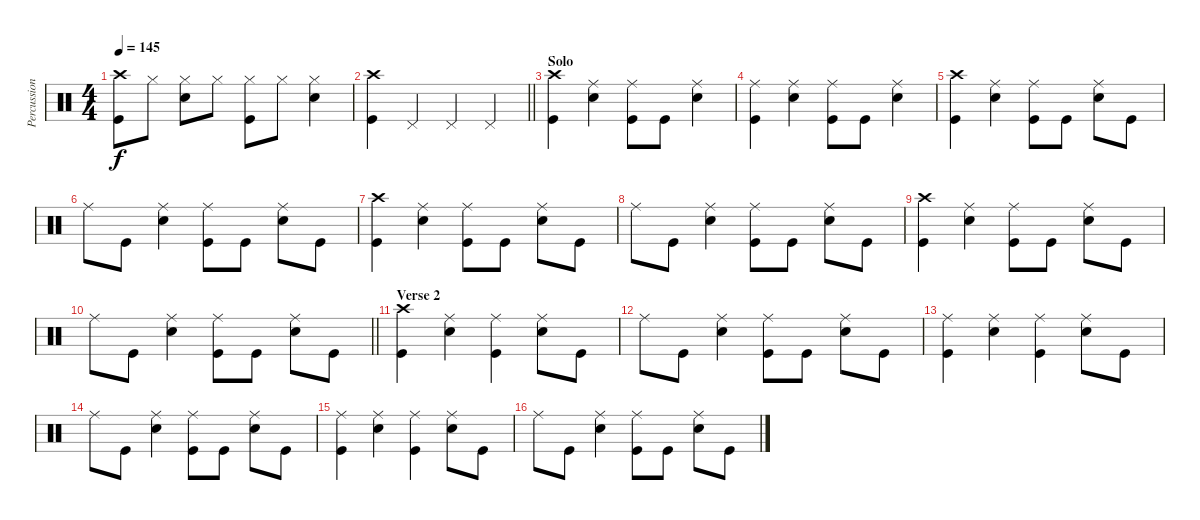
\track ("Percussion" "Percussion") {instrument percussion}
\staff {score}
\articulation defaults
\ts (4 4)
\tempo 145
\clef neutral
\ks c
("Kick (hit)" "Crash high (hit)").8{dy f} "Hi-Hat (closed)".8 ("Hi-Hat (closed)" "Snare (hit) 2").8 "Hi-Hat (closed)".8 ("Kick (hit)" "Hi-Hat (closed)").8 "Hi-Hat (closed)".8 ("Hi-Hat (closed)" "Snare (hit) 2").4 |
\barLineRight lightlight
("Kick (hit)" "Crash high (hit)").4 "Pedal Hi-Hat (hit)".4 "Pedal Hi-Hat (hit)".4 "Pedal Hi-Hat (hit)".4 |
\section ("" "Solo")
("Kick (hit)" "Crash high (hit)").4 ("Ride (middle)" "Snare (hit) 2").4 ("Kick (hit)" "Ride (middle)").8 "Kick (hit)".8 ("Ride (middle)" "Snare (hit) 2").4 |
("Kick (hit)" "Ride (middle)").4 ("Ride (middle)" "Snare (hit) 2").4 ("Kick (hit)" "Ride (middle)").8 "Kick (hit)".8 ("Ride (middle)" "Snare (hit) 2").4 |
("Kick (hit)" "Crash high (hit)").4 ("Ride (middle)" "Snare (hit) 2").4 ("Kick (hit)" "Ride (middle)").8 "Kick (hit)".8 ("Ride (middle)" "Snare (hit) 2").8 "Kick (hit)".8 |
"Ride (middle)".8 "Kick (hit)".8 ("Ride (middle)" "Snare (hit) 2").4 ("Kick (hit)" "Ride (middle)").8 "Kick (hit)".8 ("Ride (middle)" "Snare (hit) 2").8 "Kick (hit)".8 |
("Kick (hit)" "Crash high (hit)").4 ("Ride (middle)" "Snare (hit) 2").4 ("Kick (hit)" "Ride (middle)").8 "Kick (hit)".8 ("Ride (middle)" "Snare (hit) 2").8 "Kick (hit)".8 |
"Ride (middle)".8 "Kick (hit)".8 ("Ride (middle)" "Snare (hit) 2").4 ("Kick (hit)" "Ride (middle)").8 "Kick (hit)".8 ("Ride (middle)" "Snare (hit) 2").8 "Kick (hit)".8 |
("Kick (hit)" "Crash high (hit)").4 ("Ride (middle)" "Snare (hit) 2").4 ("Kick (hit)" "Ride (middle)").8 "Kick (hit)".8 ("Ride (middle)" "Snare (hit) 2").8 "Kick (hit)".8 |
\barLineRight lightlight "Ride (middle)".8 "Kick (hit)".8
("Ride (middle)" "Snare (hit) 2").4 ("Kick (hit)" "Ride (middle)").8 "Kick (hit)".8 ("Ride (middle)" "Snare (hit) 2").8 "Kick (hit)".8 |
\section ("" "Verse 2")
("Kick (hit)" "Crash high (hit)").4 ("Ride (middle)" "Snare (hit) 2").4 ("Kick (hit)" "Ride (middle)").4 ("Ride (middle)" "Snare (hit) 2").8 "Kick (hit)".8 |
"Ride (middle)".8 "Kick (hit)".8 ("Ride (middle)" "Snare (hit) 2").4 ("Kick (hit)" "Ride (middle)").8 "Kick (hit)".8 ("Ride (middle)" "Snare (hit) 2").8 "Kick (hit)".8 |
("Kick (hit)" "Ride (middle)").4 ("Ride (middle)" "Snare (hit) 2").4 ("Kick (hit)" "Ride (middle)").4 ("Ride (middle)" "Snare (hit) 2").8 "Kick (hit)".8 |
"Ride (middle)".8 "Kick (hit)".8 ("Ride (middle)" "Snare (hit) 2").4 ("Kick (hit)" "Ride (middle)").8 "Kick (hit)".8 ("Ride (middle)" "Snare (hit) 2").8 "Kick (hit)".8 |
("Kick (hit)" "Ride (middle)").4 ("Ride (middle)" "Snare (hit) 2").4 ("Kick (hit)" "Ride (middle)").4 ("Ride (middle)" "Snare (hit) 2").8 "Kick (hit)".8 |
"Ride (middle)".8 "Kick (hit)".8 ("Ride (middle)" "Snare (hit) 2").4 ("Kick (hit)" "Ride (middle)").8 "Kick (hit)".8 ("Ride (middle)" "Snare (hit) 2").8 "Kick (hit)".8
